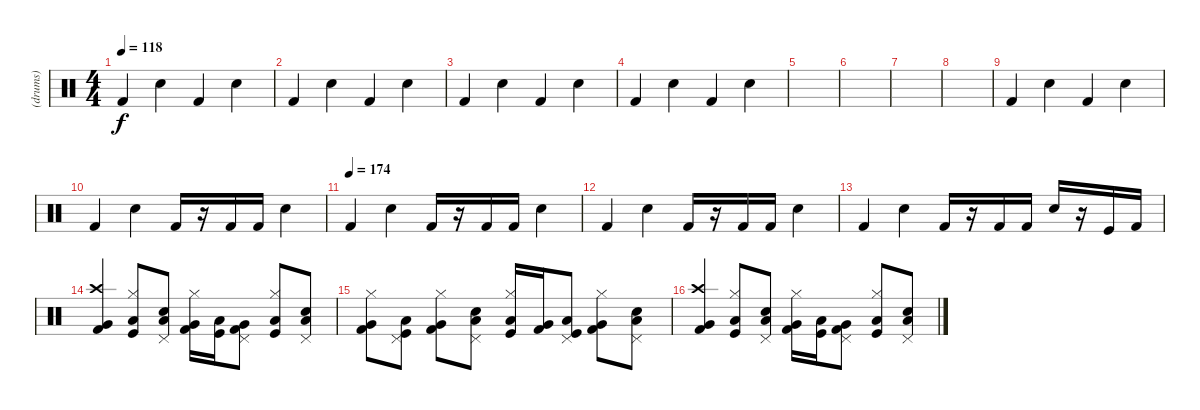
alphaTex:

\track ("(drums)" "(drums)") {instrument percussion}
\staff {score}
\articulation defaults
\ts (4 4)
\tempo 118
\clef neutral
\ks c "Kick (hit) 2".4{dy f} "Snare (hit) 2".4 "Kick (hit) 2".4 "Snare (hit) 2".4
|
"Kick (hit) 2".4 "Snare (hit) 2".4 "Kick (hit) 2".4 "Snare (hit) 2".4 |
"Kick (hit) 2".4 "Snare (hit) 2".4 "Kick (hit) 2".4 "Snare (hit) 2".4 |
"Kick (hit) 2".4 "Snare (hit) 2".4 "Kick (hit) 2".4 "Snare (hit) 2".4 |
|
|
|
|
"Kick (hit) 2".4 "Snare (hit) 2".4 "Kick (hit) 2".4 "Snare (hit) 2".4 |
"Kick (hit) 2".4 "Snare (hit) 2".4 "Kick (hit) 2".16 r.16 "Kick (hit) 2".16 "Kick (hit) 2".16 "Snare (hit) 2".4 |
\tempo (174)
"Kick (hit) 2".4 "Snare (hit) 2".4 "Kick (hit) 2".16 r.16 "Kick (hit) 2".16 "Kick (hit) 2".16 "Snare (hit) 2".4 |
"Kick (hit) 2".4 "Snare (hit) 2".4 "Kick (hit) 2".16 r.16 "Kick (hit) 2".16 "Kick (hit) 2".16 "Snare (hit) 2".4 |
"Kick (hit) 2".4 "Snare (hit) 2".4 "Kick (hit) 2".16 r.16 "Kick (hit) 2".16 "Kick (hit) 2".16 "Snare (hit) 2".16 r.16 "Kick (hit)".16 "Kick (hit) 2".16 |
("Crash high (hit)" "Kick (hit) 2" "Very Low Tom (hit)").4 ("Hi-Hat (closed)" "Kick (hit)" "Low Tom (hit)").8 ("Pedal Hi-Hat (hit)" "Snare (hit) 2" "Low Floor Tom (hit)").8 ("Hi-Hat (closed)" "Kick (hit) 2" "Very Low Tom (hit)").16 ("Kick (hit)" "Low Tom (hit)").16 ("Pedal Hi-Hat (hit)" "Kick (hit) 2" "Very Low Tom (hit)").8 ("Hi-Hat (closed)" "Kick (hit)" "Low Tom (hit)").8 ("Pedal Hi-Hat (hit)" "Snare (hit) 2" "Low Floor Tom (hit)").8 |
("Hi-Hat (closed)" "Kick (hit) 2" "Very Low Tom (hit)").8 ("Pedal Hi-Hat (hit)" "Kick (hit)" "Low Tom (hit)").8 ("Hi-Hat (closed)" "Kick (hit) 2" "Very Low Tom (hit)").8 ("Pedal Hi-Hat (hit)" "Snare (hit) 2" "Low Floor Tom (hit)").8 ("Hi-Hat (closed)" "Kick (hit)" "Low Tom (hit)").16 ("Kick (hit) 2" "Very Low Tom (hit)").16 ("Pedal Hi-Hat (hit)" "Kick (hit)" "Low Tom (hit)").8 ("Hi-Hat (closed)" "Kick (hit) 2" "Very Low Tom (hit)").8 ("Pedal Hi-Hat (hit)" "Snare (hit) 2" "Low Floor Tom (hit)").8 |
("Crash high (hit)" "Kick (hit) 2" "Very Low Tom (hit)").4 ("Hi-Hat (closed)" "Kick (hit)" "Low Tom (hit)").8 ("Pedal Hi-Hat (hit)" "Snare (hit) 2" "Low Floor Tom (hit)").8 ("Hi-Hat (closed)" "Kick (hit) 2" "Very Low Tom (hit)").16 ("Kick (hit)" "Low Tom (hit)").16 ("Pedal Hi-Hat (hit)" "Kick (hit) 2" "Very Low Tom (hit)").8 ("Hi-Hat (closed)" "Kick (hit)" "Low Tom (hit)").8 ("Pedal Hi-Hat (hit)" "Snare (hit) 2" "Low Floor Tom (hit)").8
